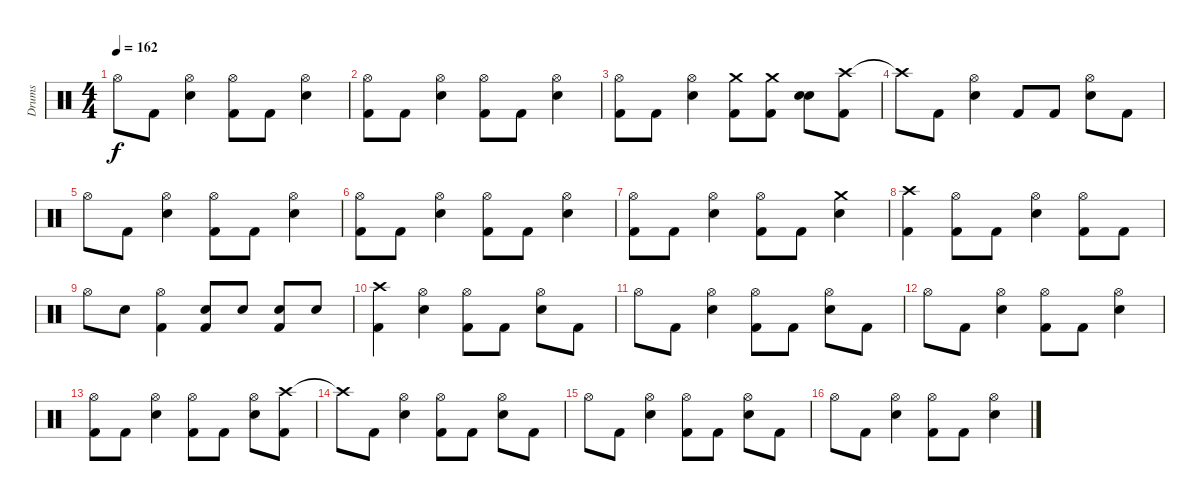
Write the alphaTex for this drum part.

\track ("Drums" "Drums") {instrument percussion}
\staff {score}
\articulation defaults
\ts (4 4)
\tempo 162
\clef neutral
\ks c "Hi-Hat (open)".8{dy f} "Kick (hit) 2".8
("Hi-Hat (open)" "Snare (hit) 2").4 ("Hi-Hat (open)" "Kick (hit) 2").8 "Kick (hit) 2".8 ("Hi-Hat (open)" "Snare (hit) 2").4 |
("Hi-Hat (open)" "Kick (hit) 2").8 "Kick (hit) 2".8 ("Hi-Hat (open)" "Snare (hit) 2").4 ("Hi-Hat (open)" "Kick (hit) 2").8 "Kick (hit) 2".8 ("Hi-Hat (open)" "Snare (hit) 2").4 |
("Hi-Hat (open)" "Kick (hit) 2").8 "Kick (hit) 2".8 ("Hi-Hat (open)" "Snare (hit) 2").4 ("Crash medium (hit)" "Kick (hit) 2").8 ("Crash medium (hit)" "Kick (hit) 2").8 ("Snare (hit) 2" "Snare (hit) 2").8 ("Crash high (hit)" "Kick (hit) 2").8 |
"Crash high (hit)"{t}.8 "Kick (hit) 2".8 ("Hi-Hat (open)" "Snare (hit) 2").4 "Kick (hit) 2".8 "Kick (hit) 2".8 ("Hi-Hat (open)" "Snare (hit) 2").8 "Kick (hit) 2".8 |
"Hi-Hat (open)".8 "Kick (hit) 2".8 ("Hi-Hat (open)" "Snare (hit) 2").4 ("Hi-Hat (open)" "Kick (hit) 2").8 "Kick (hit) 2".8 ("Hi-Hat (open)" "Snare (hit) 2").4 |
("Hi-Hat (open)" "Kick (hit) 2").8 "Kick (hit) 2".8 ("Hi-Hat (open)" "Snare (hit) 2").4 ("Hi-Hat (open)" "Kick (hit) 2").8 "Kick (hit) 2".8 ("Hi-Hat (open)" "Snare (hit) 2").4 |
("Hi-Hat (open)" "Kick (hit) 2").8 "Kick (hit) 2".8 ("Hi-Hat (open)" "Snare (hit) 2").4 ("Hi-Hat (open)" "Kick (hit) 2").8 "Kick (hit) 2".8 ("Crash medium (hit)" "Snare (hit) 2").4 |
("Crash high (hit)" "Kick (hit) 2").4 ("Hi-Hat (open)" "Kick (hit) 2").8 "Kick (hit) 2".8 ("Hi-Hat (open)" "Snare (hit) 2").4 ("Hi-Hat (open)" "Kick (hit) 2").8 "Kick (hit) 2".8 |
"Hi-Hat (open)".8 "Snare (hit) 2".8 ("Hi-Hat (open)" "Kick (hit) 2").4 ("Snare (hit) 2" "Kick (hit) 2").8 "Snare (hit) 2".8 ("Snare (hit) 2" "Kick (hit) 2").8 "Snare (hit) 2".8 |
("Crash high (hit)" "Kick (hit) 2").4 ("Hi-Hat (open)" "Snare (hit) 2").4 ("Hi-Hat (open)" "Kick (hit) 2").8 "Kick (hit) 2".8 ("Hi-Hat (open)" "Snare (hit) 2").8 "Kick (hit) 2".8 |
"Hi-Hat (open)".8 "Kick (hit) 2".8 ("Hi-Hat (open)" "Snare (hit) 2").4 ("Hi-Hat (open)" "Kick (hit) 2").8 "Kick (hit) 2".8 ("Hi-Hat (open)" "Snare (hit) 2").8 "Kick (hit) 2".8 |
"Hi-Hat (open)".8 "Kick (hit) 2".8 ("Hi-Hat (open)" "Snare (hit) 2").4 ("Hi-Hat (open)" "Kick (hit) 2").8 "Kick (hit) 2".8 ("Hi-Hat (open)" "Snare (hit) 2").4 |
("Hi-Hat (open)" "Kick (hit) 2").8 "Kick (hit) 2".8 ("Hi-Hat (open)" "Snare (hit) 2").4 ("Hi-Hat (open)" "Kick (hit) 2").8 "Kick (hit) 2".8 ("Hi-Hat (open)" "Snare (hit) 2").8 ("Crash high (hit)" "Kick (hit) 2").8 |
"Crash high (hit)"{t}.8 "Kick (hit) 2".8 ("Hi-Hat (open)" "Snare (hit) 2").4 ("Hi-Hat (open)" "Kick (hit) 2").8 "Kick (hit) 2".8 ("Hi-Hat (open)" "Snare (hit) 2").8 "Kick (hit) 2".8 |
"Hi-Hat (open)".8 "Kick (hit) 2".8 ("Hi-Hat (open)" "Snare (hit) 2").4 ("Hi-Hat (open)" "Kick (hit) 2").8 "Kick (hit) 2".8 ("Hi-Hat (open)" "Snare (hit) 2").8 "Kick (hit) 2".8 |
"Hi-Hat (open)".8 "Kick (hit) 2".8 ("Hi-Hat (open)" "Snare (hit) 2").4 ("Hi-Hat (open)" "Kick (hit) 2").8 "Kick (hit) 2".8 ("Hi-Hat (open)" "Snare (hit) 2").4
